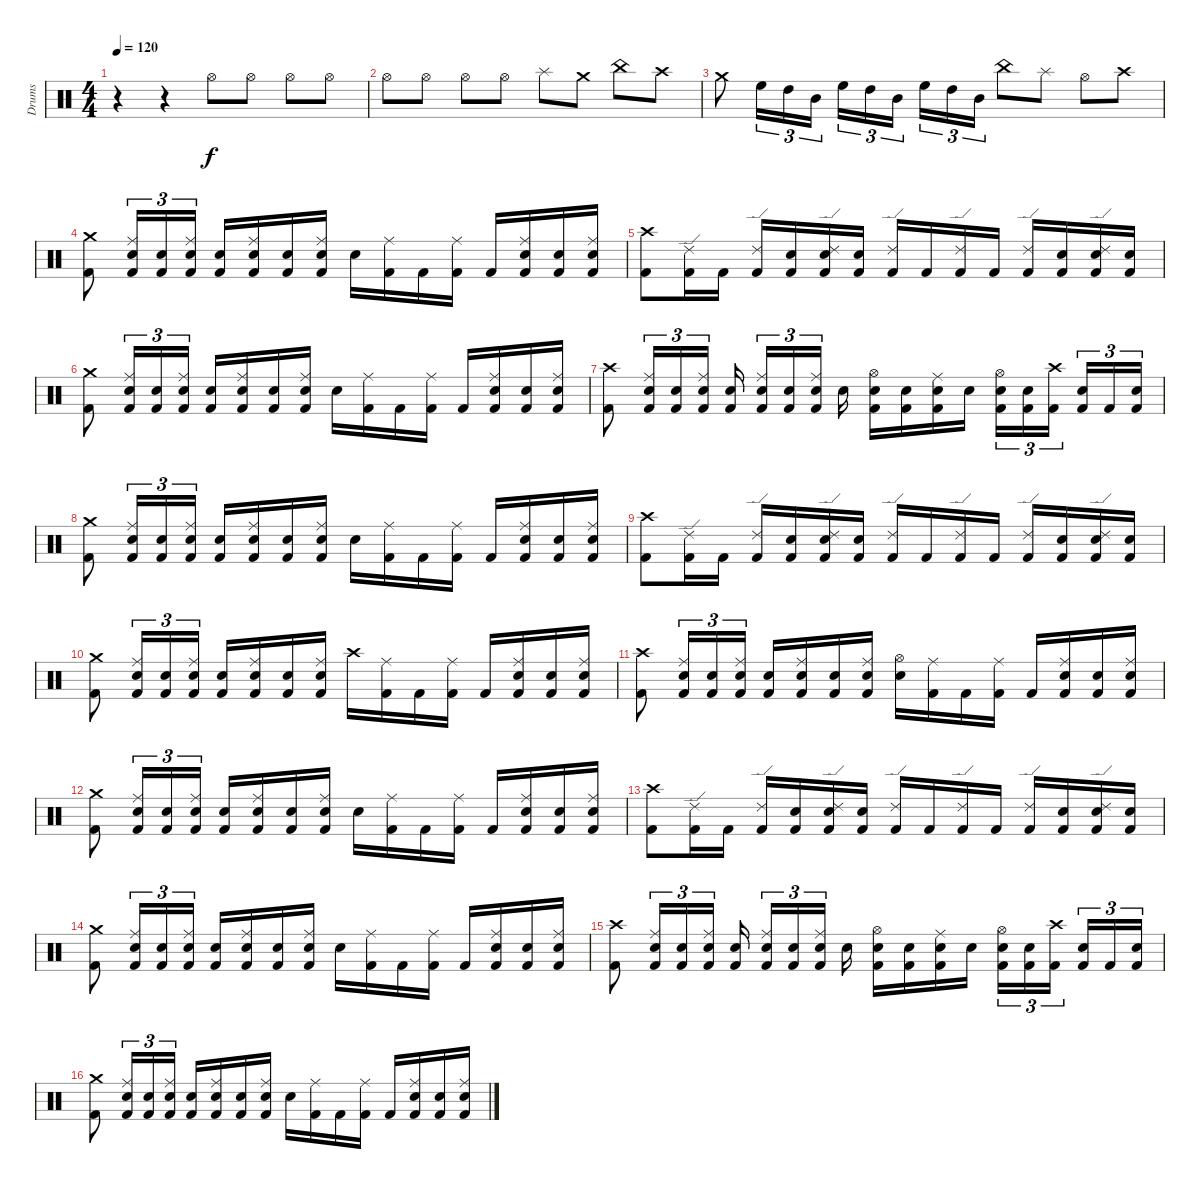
\track ("Drums" "Drums") {instrument percussion}
\staff {score}
\articulation defaults
\ts (4 4)
\tempo 120
\clef neutral
\ks c
r.4{dy f} r.4 "Hi-Hat (open)".8 "Hi-Hat (open)".8 "Hi-Hat (open)".8 "Hi-Hat (open)".8 |
"Hi-Hat (open)".8 "Hi-Hat (open)".8 "Hi-Hat (open)".8 "Hi-Hat (open)".8 "Splash (hit)".8 "Crash medium (hit)".8 "China (hit)".8 "Crash high (hit)".8 |
"Crash medium (hit)".8 "High Floor Tom (hit)".16{tu (3 2)} "High Tom (hit)".16{tu (3 2)} "Mid Tom (hit)".16{tu (3 2)} "High Floor Tom (hit)".16{tu (3 2)} "High Tom (hit)".16{tu (3 2)} "Mid Tom (hit)".16{tu (3 2)} "High Floor Tom (hit)".16{tu (3 2)} "High Tom (hit)".16{tu (3 2)} "Mid Tom (hit)".16{tu (3 2)} "China (hit)".8 "Splash (hit)".8 "Hi-Hat (open)".8 "Crash high (hit)".8 |
("Crash medium (hit)" "Kick (hit) 2").8 ("Ride (middle)" "Electric Snare (hit)" "Kick (hit) 2").16{tu (3 2)} ("Snare (hit) 2" "Kick (hit) 2").16{tu (3 2)} ("Ride (middle)" "Electric Snare (hit)" "Kick (hit) 2").16{tu (3 2)} ("Electric Snare (hit)" "Kick (hit) 2").16 ("Ride (middle)" "Snare (hit) 2" "Kick (hit) 2").16 ("Electric Snare (hit)" "Kick (hit) 2").16 ("Ride (middle)" "Snare (hit) 2" "Kick (hit) 2").16 "Electric Snare (hit)".16 ("Ride (middle)" "Kick (hit) 2").16 "Kick (hit) 2".16 ("Ride (middle)" "Kick (hit) 2").16 "Kick (hit) 2".16 ("Ride (middle)" "Electric Snare (hit)" "Kick (hit) 2").16 ("Electric Snare (hit)" "Kick (hit) 2").16 ("Ride (middle)" "Electric Snare (hit)" "Kick (hit) 2").16 |
("Crash high (hit)" "Kick (hit) 2").8 ("Ride (edge) 2" "Kick (hit) 2").16 "Kick (hit) 2".16 ("Ride (edge) 2" "Kick (hit) 2").16 ("Electric Snare (hit)" "Kick (hit) 2").16 ("Ride (edge) 2" "Snare (hit) 2" "Kick (hit) 2").16 ("Electric Snare (hit)" "Kick (hit) 2").16 ("Ride (edge) 2" "Kick (hit) 2").16 "Kick (hit) 2".16 ("Ride (edge) 2" "Kick (hit) 2").16 "Kick (hit) 2".16 ("Ride (edge) 2" "Kick (hit) 2").16 ("Electric Snare (hit)" "Kick (hit) 2").16 ("Ride (edge) 2" "Electric Snare (hit)" "Kick (hit) 2").16 ("Electric Snare (hit)" "Kick (hit) 2").16 |
("Crash medium (hit)" "Kick (hit) 2").8 ("Ride (middle)" "Electric Snare (hit)" "Kick (hit) 2").16{tu (3 2)} ("Snare (hit) 2" "Kick (hit) 2").16{tu (3 2)} ("Ride (middle)" "Electric Snare (hit)" "Kick (hit) 2").16{tu (3 2)} ("Electric Snare (hit)" "Kick (hit) 2").16 ("Ride (middle)" "Snare (hit) 2" "Kick (hit) 2").16 ("Electric Snare (hit)" "Kick (hit) 2").16 ("Ride (middle)" "Snare (hit) 2" "Kick (hit) 2").16 "Electric Snare (hit)".16 ("Ride (middle)" "Kick (hit) 2").16 "Kick (hit) 2".16 ("Ride (middle)" "Kick (hit) 2").16 "Kick (hit) 2".16 ("Ride (middle)" "Electric Snare (hit)" "Kick (hit) 2").16 ("Electric Snare (hit)" "Kick (hit) 2").16 ("Ride (middle)" "Electric Snare (hit)" "Kick (hit) 2").16 |
("Crash high (hit)" "Kick (hit) 2").8 ("Ride (middle)" "Electric Snare (hit)" "Kick (hit) 2").16{tu (3 2)} ("Snare (hit) 2" "Kick (hit) 2").16{tu (3 2)} ("Ride (middle)" "Electric Snare (hit)" "Kick (hit) 2").16{tu (3 2)} ("Electric Snare (hit)" "Kick (hit) 2").16 ("Ride (middle)" "Snare (hit) 2" "Kick (hit) 2").16{tu (3 2)} ("Electric Snare (hit)" "Kick (hit) 2").16{tu (3 2)} ("Ride (middle)" "Snare (hit) 2" "Kick (hit) 2").16{tu (3 2)} "Electric Snare (hit)".16 ("Hi-Hat (open)" "Snare (hit) 2" "Kick (hit) 2").16 ("Electric Snare (hit)" "Kick (hit) 2").16 ("Ride (middle)" "Snare (hit) 2" "Kick (hit) 2").16 "Electric Snare (hit)".16 ("Hi-Hat (open)" "Snare (hit) 2" "Kick (hit) 2").16{tu (3 2)} ("Electric Snare (hit)" "Kick (hit) 2").16{tu (3 2)} ("Crash high (hit)" "Kick (hit) 2").16{tu (3 2)} ("Electric Snare (hit)" "Kick (hit) 2").16{tu (3 2)} "Kick (hit) 2".16{tu (3 2)} ("Electric Snare (hit)" "Kick (hit) 2").16{tu (3 2)} |
("Crash medium (hit)" "Kick (hit) 2").8 ("Ride (middle)" "Electric Snare (hit)" "Kick (hit) 2").16{tu (3 2)} ("Snare (hit) 2" "Kick (hit) 2").16{tu (3 2)} ("Ride (middle)" "Electric Snare (hit)" "Kick (hit) 2").16{tu (3 2)} ("Electric Snare (hit)" "Kick (hit) 2").16 ("Ride (middle)" "Snare (hit) 2" "Kick (hit) 2").16 ("Electric Snare (hit)" "Kick (hit) 2").16 ("Ride (middle)" "Snare (hit) 2" "Kick (hit) 2").16 "Electric Snare (hit)".16 ("Ride (middle)" "Kick (hit) 2").16 "Kick (hit) 2".16 ("Ride (middle)" "Kick (hit) 2").16 "Kick (hit) 2".16 ("Ride (middle)" "Electric Snare (hit)" "Kick (hit) 2").16 ("Electric Snare (hit)" "Kick (hit) 2").16 ("Ride (middle)" "Electric Snare (hit)" "Kick (hit) 2").16 |
("Crash high (hit)" "Kick (hit) 2").8 ("Ride (edge) 2" "Kick (hit) 2").16 "Kick (hit) 2".16 ("Ride (edge) 2" "Kick (hit) 2").16 ("Electric Snare (hit)" "Kick (hit) 2").16 ("Ride (edge) 2" "Snare (hit) 2" "Kick (hit) 2").16 ("Electric Snare (hit)" "Kick (hit) 2").16 ("Ride (edge) 2" "Kick (hit) 2").16 "Kick (hit) 2".16 ("Ride (edge) 2" "Kick (hit) 2").16 "Kick (hit) 2".16 ("Ride (edge) 2" "Kick (hit) 2").16 ("Electric Snare (hit)" "Kick (hit) 2").16 ("Ride (edge) 2" "Electric Snare (hit)" "Kick (hit) 2").16 ("Electric Snare (hit)" "Kick (hit) 2").16 |
("Crash medium (hit)" "Kick (hit) 2").8 ("Ride (middle)" "Electric Snare (hit)" "Kick (hit) 2").16{tu (3 2)} ("Snare (hit) 2" "Kick (hit) 2").16{tu (3 2)} ("Ride (middle)" "Electric Snare (hit)" "Kick (hit) 2").16{tu (3 2)} ("Electric Snare (hit)" "Kick (hit) 2").16 ("Ride (middle)" "Snare (hit) 2" "Kick (hit) 2").16 ("Electric Snare (hit)" "Kick (hit) 2").16 ("Ride (middle)" "Snare (hit) 2" "Kick (hit) 2").16 "Crash high (hit)".16 ("Ride (middle)" "Kick (hit) 2").16 "Kick (hit) 2".16 ("Ride (middle)" "Kick (hit) 2").16 "Kick (hit) 2".16 ("Ride (middle)" "Electric Snare (hit)" "Kick (hit) 2").16 ("Electric Snare (hit)" "Kick (hit) 2").16 ("Ride (middle)" "Electric Snare (hit)" "Kick (hit) 2").16 |
("Crash high (hit)" "Kick (hit) 2").8 ("Ride (middle)" "Electric Snare (hit)" "Kick (hit) 2").16{tu (3 2)} ("Snare (hit) 2" "Kick (hit) 2").16{tu (3 2)} ("Ride (middle)" "Electric Snare (hit)" "Kick (hit) 2").16{tu (3 2)} ("Electric Snare (hit)" "Kick (hit) 2").16 ("Ride (middle)" "Snare (hit) 2" "Kick (hit) 2").16 ("Electric Snare (hit)" "Kick (hit) 2").16 ("Ride (middle)" "Snare (hit) 2" "Kick (hit) 2").16 ("Hi-Hat (open)" "Electric Snare (hit)").16 ("Ride (middle)" "Kick (hit) 2").16 "Kick (hit) 2".16 ("Ride (middle)" "Kick (hit) 2").16 "Kick (hit) 2".16 ("Ride (middle)" "Electric Snare (hit)" "Kick (hit) 2").16 ("Electric Snare (hit)" "Kick (hit) 2").16 ("Ride (middle)" "Electric Snare (hit)" "Kick (hit) 2").16 |
("Crash medium (hit)" "Kick (hit) 2").8 ("Ride (middle)" "Electric Snare (hit)" "Kick (hit) 2").16{tu (3 2)} ("Snare (hit) 2" "Kick (hit) 2").16{tu (3 2)} ("Ride (middle)" "Electric Snare (hit)" "Kick (hit) 2").16{tu (3 2)} ("Electric Snare (hit)" "Kick (hit) 2").16 ("Ride (middle)" "Snare (hit) 2" "Kick (hit) 2").16 ("Electric Snare (hit)" "Kick (hit) 2").16 ("Ride (middle)" "Snare (hit) 2" "Kick (hit) 2").16 "Electric Snare (hit)".16 ("Ride (middle)" "Kick (hit) 2").16 "Kick (hit) 2".16 ("Ride (middle)" "Kick (hit) 2").16 "Kick (hit) 2".16 ("Ride (middle)" "Electric Snare (hit)" "Kick (hit) 2").16 ("Electric Snare (hit)" "Kick (hit) 2").16 ("Ride (middle)" "Electric Snare (hit)" "Kick (hit) 2").16 |
("Crash high (hit)" "Kick (hit) 2").8 ("Ride (edge) 2" "Kick (hit) 2").16 "Kick (hit) 2".16 ("Ride (edge) 2" "Kick (hit) 2").16 ("Electric Snare (hit)" "Kick (hit) 2").16 ("Ride (edge) 2" "Snare (hit) 2" "Kick (hit) 2").16 ("Electric Snare (hit)" "Kick (hit) 2").16 ("Ride (edge) 2" "Kick (hit) 2").16 "Kick (hit) 2".16 ("Ride (edge) 2" "Kick (hit) 2").16 "Kick (hit) 2".16 ("Ride (edge) 2" "Kick (hit) 2").16 ("Electric Snare (hit)" "Kick (hit) 2").16 ("Ride (edge) 2" "Electric Snare (hit)" "Kick (hit) 2").16 ("Electric Snare (hit)" "Kick (hit) 2").16 |
("Crash medium (hit)" "Kick (hit) 2").8 ("Ride (middle)" "Electric Snare (hit)" "Kick (hit) 2").16{tu (3 2)} ("Snare (hit) 2" "Kick (hit) 2").16{tu (3 2)} ("Ride (middle)" "Electric Snare (hit)" "Kick (hit) 2").16{tu (3 2)} ("Electric Snare (hit)" "Kick (hit) 2").16 ("Ride (middle)" "Snare (hit) 2" "Kick (hit) 2").16 ("Electric Snare (hit)" "Kick (hit) 2").16 ("Ride (middle)" "Snare (hit) 2" "Kick (hit) 2").16 "Electric Snare (hit)".16 ("Ride (middle)" "Kick (hit) 2").16 "Kick (hit) 2".16 ("Ride (middle)" "Kick (hit) 2").16 "Kick (hit) 2".16 ("Ride (middle)" "Electric Snare (hit)" "Kick (hit) 2").16 ("Electric Snare (hit)" "Kick (hit) 2").16 ("Ride (middle)" "Electric Snare (hit)" "Kick (hit) 2").16 |
("Crash high (hit)" "Kick (hit) 2").8 ("Ride (middle)" "Electric Snare (hit)" "Kick (hit) 2").16{tu (3 2)} ("Snare (hit) 2" "Kick (hit) 2").16{tu (3 2)} ("Ride (middle)" "Electric Snare (hit)" "Kick (hit) 2").16{tu (3 2)} ("Electric Snare (hit)" "Kick (hit) 2").16 ("Ride (middle)" "Snare (hit) 2" "Kick (hit) 2").16{tu (3 2)} ("Electric Snare (hit)" "Kick (hit) 2").16{tu (3 2)} ("Ride (middle)" "Snare (hit) 2" "Kick (hit) 2").16{tu (3 2)} "Electric Snare (hit)".16 ("Hi-Hat (open)" "Snare (hit) 2" "Kick (hit) 2").16 ("Electric Snare (hit)" "Kick (hit) 2").16 ("Ride (middle)" "Snare (hit) 2" "Kick (hit) 2").16 "Electric Snare (hit)".16 ("Hi-Hat (open)" "Snare (hit) 2" "Kick (hit) 2").16{tu (3 2)} ("Electric Snare (hit)" "Kick (hit) 2").16{tu (3 2)} ("Crash high (hit)" "Kick (hit) 2").16{tu (3 2)} ("Electric Snare (hit)" "Kick (hit) 2").16{tu (3 2)} "Kick (hit) 2".16{tu (3 2)} ("Electric Snare (hit)" "Kick (hit) 2").16{tu (3 2)} |
("Crash medium (hit)" "Kick (hit) 2").8 ("Ride (middle)" "Electric Snare (hit)" "Kick (hit) 2").16{tu (3 2)} ("Snare (hit) 2" "Kick (hit) 2").16{tu (3 2)} ("Ride (middle)" "Electric Snare (hit)" "Kick (hit) 2").16{tu (3 2)} ("Electric Snare (hit)" "Kick (hit) 2").16 ("Ride (middle)" "Snare (hit) 2" "Kick (hit) 2").16 ("Electric Snare (hit)" "Kick (hit) 2").16 ("Ride (middle)" "Snare (hit) 2" "Kick (hit) 2").16 "Electric Snare (hit)".16 ("Ride (middle)" "Kick (hit) 2").16 "Kick (hit) 2".16 ("Ride (middle)" "Kick (hit) 2").16 "Kick (hit) 2".16 ("Ride (middle)" "Electric Snare (hit)" "Kick (hit) 2").16 ("Electric Snare (hit)" "Kick (hit) 2").16 ("Ride (middle)" "Electric Snare (hit)" "Kick (hit) 2").16
